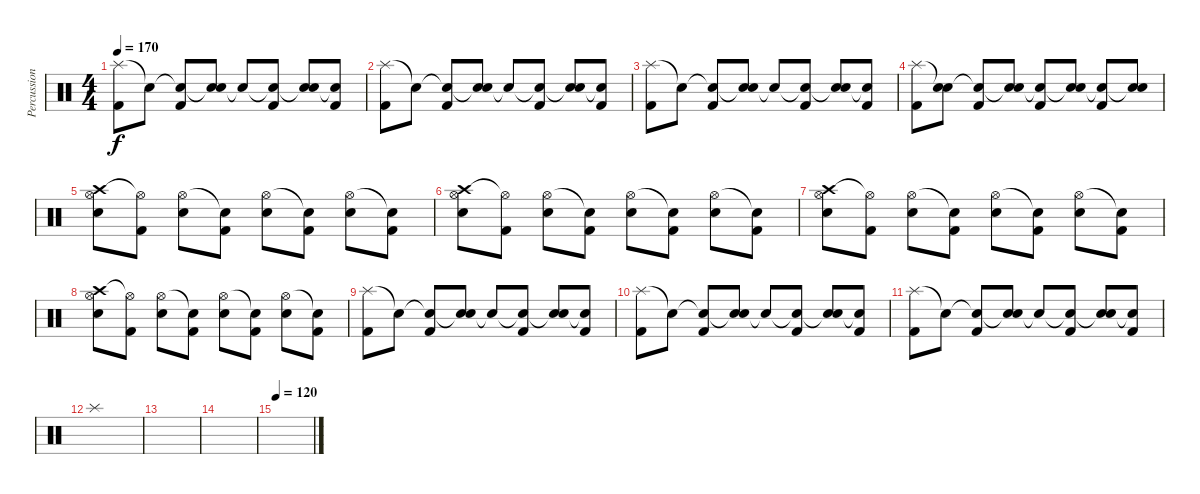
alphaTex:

\track ("Percussion" "Percussion") {instrument percussion}
\staff {score}
\articulation defaults
\ts (4 4)
\tempo 170
\clef neutral
\ks c
("Splash (hit)" "Kick (hit) 2").8{dy f} "Snare (hit)"{t}.8 ("Snare (hit)"{t} "Kick (hit) 2").8 ("Snare (hit)"{t} "Electric Snare (hit)").8 "Snare (hit)"{t}.8 ("Snare (hit)"{t} "Kick (hit) 2").8 ("Snare (hit)"{t} "Electric Snare (hit)").8 ("Snare (hit)"{t} "Kick (hit) 2").8 |
("Splash (hit)" "Kick (hit) 2").8 "Snare (hit)"{t}.8 ("Snare (hit)"{t} "Kick (hit) 2").8 ("Snare (hit)"{t} "Electric Snare (hit)").8 "Snare (hit)"{t}.8 ("Snare (hit)"{t} "Kick (hit) 2").8 ("Snare (hit)"{t} "Electric Snare (hit)").8 ("Snare (hit)"{t} "Kick (hit) 2").8 |
("Splash (hit)" "Kick (hit) 2").8 "Snare (hit)"{t}.8 ("Snare (hit)"{t} "Kick (hit) 2").8 ("Snare (hit)"{t} "Electric Snare (hit)").8 "Snare (hit)"{t}.8 ("Snare (hit)"{t} "Kick (hit) 2").8 ("Snare (hit)"{t} "Electric Snare (hit)").8 ("Snare (hit)"{t} "Kick (hit) 2").8 |
("Splash (hit)" "Kick (hit) 2").8 ("Snare (hit)"{t} "Electric Snare (hit)").8 ("Snare (hit)"{t} "Kick (hit) 2").8 ("Snare (hit)"{t} "Electric Snare (hit)").8 ("Snare (hit)"{t} "Kick (hit) 2").8 ("Snare (hit)"{t} "Electric Snare (hit)").8 ("Snare (hit)"{t} "Kick (hit) 2").8 ("Snare (hit)"{t} "Electric Snare (hit)").8 |
("Crash high (hit)" "Hi-Hat (open)" "Electric Snare (hit)").8 ("Hi-Hat (open)"{t} "Kick (hit) 2").8 ("Hi-Hat (open)" "Electric Snare (hit)").8 ("Snare (hit)"{t} "Kick (hit) 2").8 ("Hi-Hat (open)" "Electric Snare (hit)").8 ("Snare (hit)"{t} "Kick (hit) 2").8 ("Hi-Hat (open)" "Electric Snare (hit)").8 ("Snare (hit)"{t} "Kick (hit) 2").8 |
("Crash high (hit)" "Hi-Hat (open)" "Electric Snare (hit)").8 ("Hi-Hat (open)"{t} "Kick (hit) 2").8 ("Hi-Hat (open)" "Electric Snare (hit)").8 ("Snare (hit)"{t} "Kick (hit) 2").8 ("Hi-Hat (open)" "Electric Snare (hit)").8 ("Snare (hit)"{t} "Kick (hit) 2").8 ("Hi-Hat (open)" "Electric Snare (hit)").8 ("Snare (hit)"{t} "Kick (hit) 2").8 |
("Crash high (hit)" "Hi-Hat (open)" "Electric Snare (hit)").8 ("Hi-Hat (open)"{t} "Kick (hit) 2").8 ("Hi-Hat (open)" "Electric Snare (hit)").8 ("Snare (hit)"{t} "Kick (hit) 2").8 ("Hi-Hat (open)" "Electric Snare (hit)").8 ("Snare (hit)"{t} "Kick (hit) 2").8 ("Hi-Hat (open)" "Electric Snare (hit)").8 ("Snare (hit)"{t} "Kick (hit) 2").8 |
("Crash high (hit)" "Hi-Hat (open)" "Electric Snare (hit)").8 ("Hi-Hat (open)"{t} "Kick (hit) 2").8 ("Hi-Hat (open)" "Electric Snare (hit)").8 ("Snare (hit)"{t} "Kick (hit) 2").8 ("Hi-Hat (open)" "Electric Snare (hit)").8 ("Snare (hit)"{t} "Kick (hit) 2").8 ("Hi-Hat (open)" "Electric Snare (hit)").8 ("Snare (hit)"{t} "Kick (hit) 2").8 |
("Splash (hit)" "Kick (hit) 2").8 "Snare (hit)"{t}.8 ("Snare (hit)"{t} "Kick (hit) 2").8 ("Snare (hit)"{t} "Electric Snare (hit)").8 "Snare (hit)"{t}.8 ("Snare (hit)"{t} "Kick (hit) 2").8 ("Snare (hit)"{t} "Electric Snare (hit)").8 ("Snare (hit)"{t} "Kick (hit) 2").8 |
("Splash (hit)" "Kick (hit) 2").8 "Snare (hit)"{t}.8 ("Snare (hit)"{t} "Kick (hit) 2").8 ("Snare (hit)"{t} "Electric Snare (hit)").8 "Snare (hit)"{t}.8 ("Snare (hit)"{t} "Kick (hit) 2").8 ("Snare (hit)"{t} "Electric Snare (hit)").8 ("Snare (hit)"{t} "Kick (hit) 2").8 |
("Splash (hit)" "Kick (hit) 2").8 "Snare (hit)"{t}.8 ("Snare (hit)"{t} "Kick (hit) 2").8 ("Snare (hit)"{t} "Electric Snare (hit)").8 "Snare (hit)"{t}.8 ("Snare (hit)"{t} "Kick (hit) 2").8 ("Snare (hit)"{t} "Electric Snare (hit)").8 ("Snare (hit)"{t} "Kick (hit) 2").8 |
"Splash (hit)".1 |
|
|
\tempo 120
